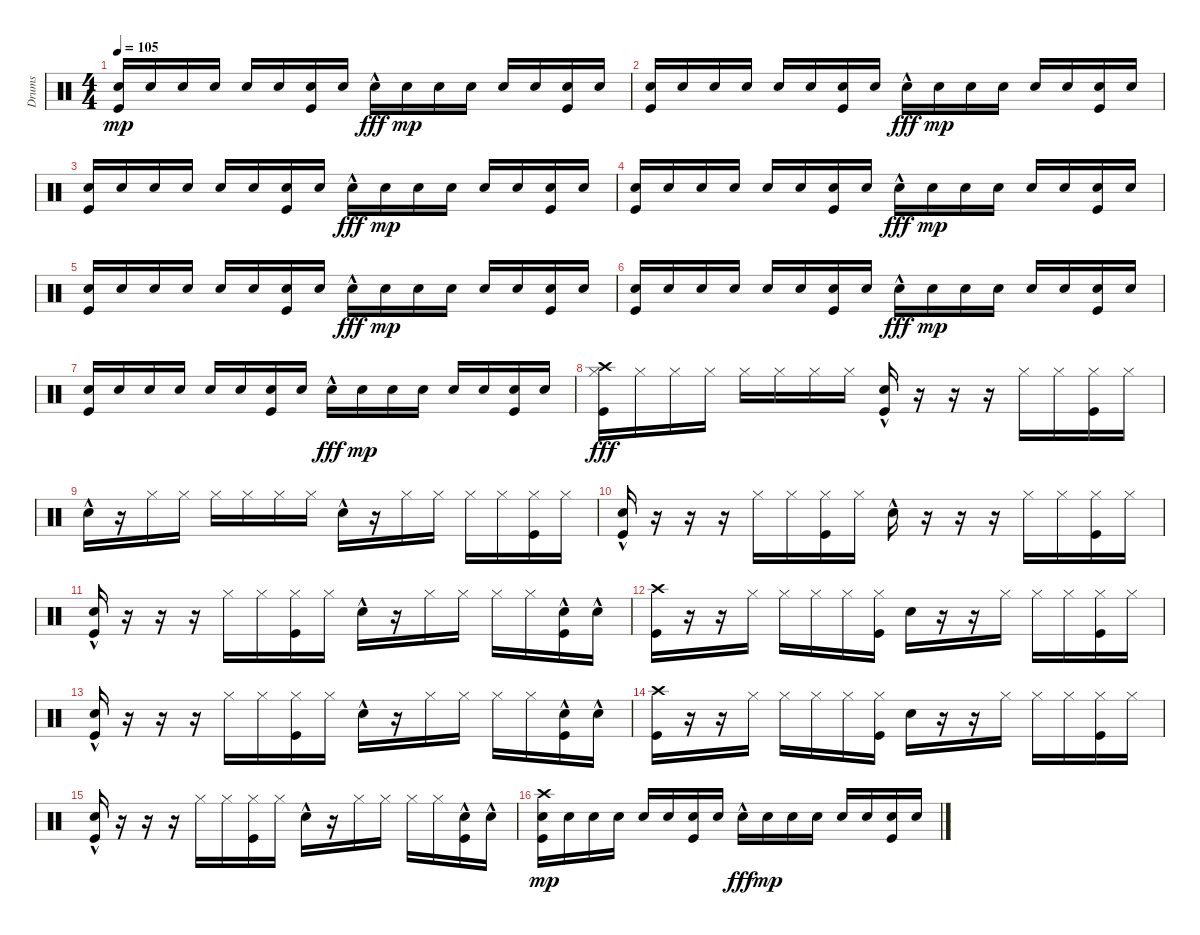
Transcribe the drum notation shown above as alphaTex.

\track ("Drums" "Drums") {instrument percussion}
\staff {score}
\articulation defaults
\ts (4 4)
\tempo 105
\clef neutral
\ks c
("Snare (hit) 2" "Kick (hit)").16{dy mp} "Snare (hit) 2".16 "Snare (hit) 2".16 "Snare (hit) 2".16 "Snare (hit) 2".16 "Snare (hit) 2".16 ("Snare (hit) 2" "Kick (hit)").16 "Snare (hit) 2".16 "Snare (hit) 2"{hac}.16{dy fff} "Snare (hit) 2".16{dy mp} "Snare (hit) 2".16 "Snare (hit) 2".16 "Snare (hit) 2".16 "Snare (hit) 2".16 ("Snare (hit) 2" "Kick (hit)").16 "Snare (hit) 2".16 |
("Snare (hit) 2" "Kick (hit)").16 "Snare (hit) 2".16 "Snare (hit) 2".16 "Snare (hit) 2".16 "Snare (hit) 2".16 "Snare (hit) 2".16 ("Snare (hit) 2" "Kick (hit)").16 "Snare (hit) 2".16 "Snare (hit) 2"{hac}.16{dy fff} "Snare (hit) 2".16{dy mp} "Snare (hit) 2".16 "Snare (hit) 2".16 "Snare (hit) 2".16 "Snare (hit) 2".16 ("Snare (hit) 2" "Kick (hit)").16 "Snare (hit) 2".16 |
("Snare (hit) 2" "Kick (hit)").16 "Snare (hit) 2".16 "Snare (hit) 2".16 "Snare (hit) 2".16 "Snare (hit) 2".16 "Snare (hit) 2".16 ("Snare (hit) 2" "Kick (hit)").16 "Snare (hit) 2".16 "Snare (hit) 2"{hac}.16{dy fff} "Snare (hit) 2".16{dy mp} "Snare (hit) 2".16 "Snare (hit) 2".16 "Snare (hit) 2".16 "Snare (hit) 2".16 ("Snare (hit) 2" "Kick (hit)").16 "Snare (hit) 2".16 |
("Snare (hit) 2" "Kick (hit)").16 "Snare (hit) 2".16 "Snare (hit) 2".16 "Snare (hit) 2".16 "Snare (hit) 2".16 "Snare (hit) 2".16 ("Snare (hit) 2" "Kick (hit)").16 "Snare (hit) 2".16 "Snare (hit) 2"{hac}.16{dy fff} "Snare (hit) 2".16{dy mp} "Snare (hit) 2".16 "Snare (hit) 2".16 "Snare (hit) 2".16 "Snare (hit) 2".16 ("Snare (hit) 2" "Kick (hit)").16 "Snare (hit) 2".16 |
("Snare (hit) 2" "Kick (hit)").16 "Snare (hit) 2".16 "Snare (hit) 2".16 "Snare (hit) 2".16 "Snare (hit) 2".16 "Snare (hit) 2".16 ("Snare (hit) 2" "Kick (hit)").16 "Snare (hit) 2".16 "Snare (hit) 2"{hac}.16{dy fff} "Snare (hit) 2".16{dy mp} "Snare (hit) 2".16 "Snare (hit) 2".16 "Snare (hit) 2".16 "Snare (hit) 2".16 ("Snare (hit) 2" "Kick (hit)").16 "Snare (hit) 2".16 |
("Snare (hit) 2" "Kick (hit)").16 "Snare (hit) 2".16 "Snare (hit) 2".16 "Snare (hit) 2".16 "Snare (hit) 2".16 "Snare (hit) 2".16 ("Snare (hit) 2" "Kick (hit)").16 "Snare (hit) 2".16 "Snare (hit) 2"{hac}.16{dy fff} "Snare (hit) 2".16{dy mp} "Snare (hit) 2".16 "Snare (hit) 2".16 "Snare (hit) 2".16 "Snare (hit) 2".16 ("Snare (hit) 2" "Kick (hit)").16 "Snare (hit) 2".16 |
("Snare (hit) 2" "Kick (hit)").16 "Snare (hit) 2".16 "Snare (hit) 2".16 "Snare (hit) 2".16 "Snare (hit) 2".16 "Snare (hit) 2".16 ("Snare (hit) 2" "Kick (hit)").16 "Snare (hit) 2".16 "Snare (hit) 2"{hac}.16{dy fff} "Snare (hit) 2".16{dy mp} "Snare (hit) 2".16 "Snare (hit) 2".16 "Snare (hit) 2".16 "Snare (hit) 2".16 ("Snare (hit) 2" "Kick (hit)").16 "Snare (hit) 2".16 |
("Crash high (hit)" "Hi-Hat (closed)" "Kick (hit)").16{dy fff} "Hi-Hat (closed)".16 "Hi-Hat (closed)".16 "Hi-Hat (closed)".16 "Hi-Hat (closed)".16 "Hi-Hat (closed)".16 "Hi-Hat (closed)".16 "Hi-Hat (closed)".16 ("Snare (hit) 2"{hac} "Kick (hit)").16 r.16 r.16 r.16 "Hi-Hat (closed)".16 "Hi-Hat (closed)".16 ("Hi-Hat (closed)" "Kick (hit)").16 "Hi-Hat (closed)".16 |
"Snare (hit) 2"{hac}.16 r.16 "Hi-Hat (closed)".16 "Hi-Hat (closed)".16 "Hi-Hat (closed)".16 "Hi-Hat (closed)".16 "Hi-Hat (closed)".16 "Hi-Hat (closed)".16 "Snare (hit) 2"{hac}.16 r.16 "Hi-Hat (closed)".16 "Hi-Hat (closed)".16 "Hi-Hat (closed)".16 "Hi-Hat (closed)".16 ("Hi-Hat (closed)" "Kick (hit)").16 "Hi-Hat (closed)".16 |
("Snare (hit) 2"{hac} "Kick (hit)").16 r.16 r.16 r.16 "Hi-Hat (closed)".16 "Hi-Hat (closed)".16 ("Hi-Hat (closed)" "Kick (hit)").16 "Hi-Hat (closed)".16 "Snare (hit) 2"{hac}.16 r.16 r.16 r.16 "Hi-Hat (closed)".16 "Hi-Hat (closed)".16 ("Hi-Hat (closed)" "Kick (hit)").16 "Hi-Hat (closed)".16 |
("Snare (hit) 2"{hac} "Kick (hit)").16 r.16 r.16 r.16 "Hi-Hat (closed)".16 "Hi-Hat (closed)".16 ("Hi-Hat (closed)" "Kick (hit)").16 "Hi-Hat (closed)".16 "Snare (hit) 2"{hac}.16 r.16 "Hi-Hat (closed)".16 "Hi-Hat (closed)".16 "Hi-Hat (closed)".16 "Hi-Hat (closed)".16 ("Snare (hit) 2"{hac} "Kick (hit)").16 "Snare (hit) 2"{hac}.16 |
("Crash high (hit)" "Kick (hit)").16 r.16 r.16 "Hi-Hat (closed)".16 "Hi-Hat (closed)".16 "Hi-Hat (closed)".16 "Hi-Hat (closed)".16 ("Hi-Hat (closed)" "Kick (hit)").16 "Snare (hit) 2".16 r.16 r.16 "Hi-Hat (closed)".16 "Hi-Hat (closed)".16 "Hi-Hat (closed)".16 ("Hi-Hat (closed)" "Kick (hit)").16 "Hi-Hat (closed)".16 |
("Snare (hit) 2"{hac} "Kick (hit)").16 r.16 r.16 r.16 "Hi-Hat (closed)".16 "Hi-Hat (closed)".16 ("Hi-Hat (closed)" "Kick (hit)").16 "Hi-Hat (closed)".16 "Snare (hit) 2"{hac}.16 r.16 "Hi-Hat (closed)".16 "Hi-Hat (closed)".16 "Hi-Hat (closed)".16 "Hi-Hat (closed)".16 ("Snare (hit) 2"{hac} "Kick (hit)").16 "Snare (hit) 2"{hac}.16 |
("Crash high (hit)" "Kick (hit)").16 r.16 r.16 "Hi-Hat (closed)".16 "Hi-Hat (closed)".16 "Hi-Hat (closed)".16 "Hi-Hat (closed)".16 ("Hi-Hat (closed)" "Kick (hit)").16 "Snare (hit) 2".16 r.16 r.16 "Hi-Hat (closed)".16 "Hi-Hat (closed)".16 "Hi-Hat (closed)".16 ("Hi-Hat (closed)" "Kick (hit)").16 "Hi-Hat (closed)".16 |
("Snare (hit) 2"{hac} "Kick (hit)").16 r.16 r.16 r.16 "Hi-Hat (closed)".16 "Hi-Hat (closed)".16 ("Hi-Hat (closed)" "Kick (hit)").16 "Hi-Hat (closed)".16 "Snare (hit) 2"{hac}.16 r.16 "Hi-Hat (closed)".16 "Hi-Hat (closed)".16 "Hi-Hat (closed)".16 "Hi-Hat (closed)".16 ("Snare (hit) 2"{hac} "Kick (hit)").16 "Snare (hit) 2"{hac}.16 |
("Crash high (hit)" "Snare (hit) 2" "Kick (hit)").16{dy mp} "Snare (hit) 2".16 "Snare (hit) 2".16 "Snare (hit) 2".16 "Snare (hit) 2".16 "Snare (hit) 2".16 ("Snare (hit) 2" "Kick (hit)").16 "Snare (hit) 2".16 "Snare (hit) 2"{hac}.16{dy fff} "Snare (hit) 2".16{dy mp} "Snare (hit) 2".16 "Snare (hit) 2".16 "Snare (hit) 2".16 "Snare (hit) 2".16 ("Snare (hit) 2" "Kick (hit)").16 "Snare (hit) 2".16
